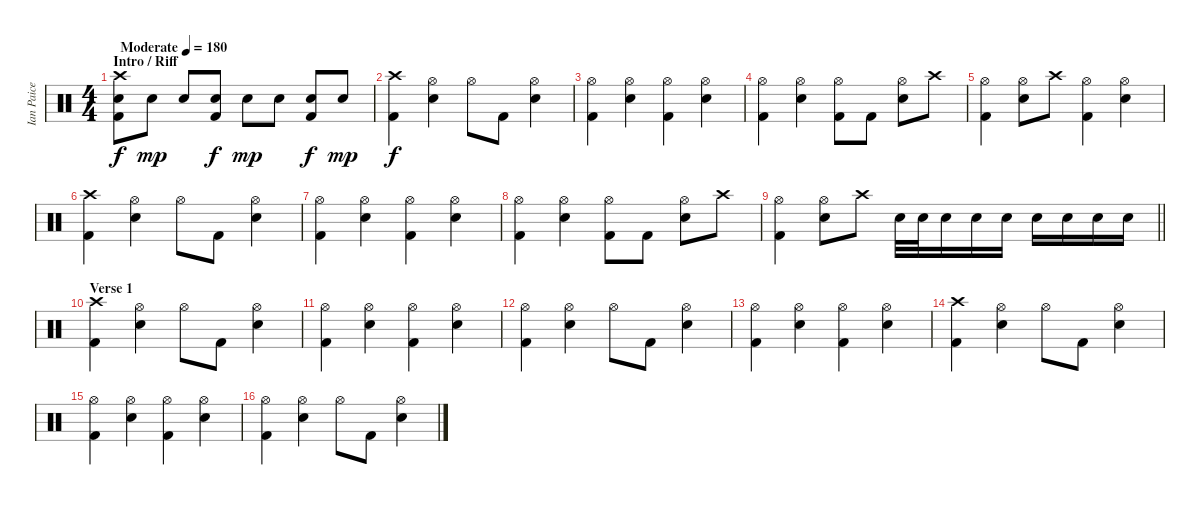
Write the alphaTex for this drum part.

\track ("Ian Paice" "Ian Paice") {instrument percussion}
\staff {score}
\articulation defaults
\ts (4 4)
\section ("" "Intro / Riff")
\tempo (180 "Moderate")
\clef neutral
\ks c
("Crash high (hit)" "Snare (hit) 2" "Kick (hit) 2").8{dy f} "Snare (hit) 2".8{dy mp} "Snare (hit) 2".8 ("Snare (hit) 2" "Kick (hit) 2").8{dy f} "Snare (hit) 2".8{dy mp} "Snare (hit) 2".8 ("Snare (hit) 2" "Kick (hit) 2").8{dy f} "Snare (hit) 2".8{dy mp} |
("Crash high (hit)" "Kick (hit) 2").4{dy f} ("Hi-Hat (open)" "Snare (hit) 2").4 "Hi-Hat (open)".8 "Kick (hit) 2".8 ("Hi-Hat (open)" "Snare (hit) 2").4 |
("Hi-Hat (open)" "Kick (hit) 2").4 ("Hi-Hat (open)" "Snare (hit) 2").4 ("Hi-Hat (open)" "Kick (hit) 2").4 ("Hi-Hat (open)" "Snare (hit) 2").4 |
("Hi-Hat (open)" "Kick (hit) 2").4 ("Hi-Hat (open)" "Snare (hit) 2").4 ("Hi-Hat (open)" "Kick (hit) 2").8 "Kick (hit) 2".8 ("Hi-Hat (open)" "Snare (hit) 2").8 "Crash high (hit)".8 |
("Hi-Hat (open)" "Kick (hit) 2").4 ("Hi-Hat (open)" "Snare (hit) 2").8 "Crash high (hit)".8 ("Hi-Hat (open)" "Kick (hit) 2").4 ("Hi-Hat (open)" "Snare (hit) 2").4 |
("Crash high (hit)" "Kick (hit) 2").4 ("Hi-Hat (open)" "Snare (hit) 2").4 "Hi-Hat (open)".8 "Kick (hit) 2".8 ("Hi-Hat (open)" "Snare (hit) 2").4 |
("Hi-Hat (open)" "Kick (hit) 2").4 ("Hi-Hat (open)" "Snare (hit) 2").4 ("Hi-Hat (open)" "Kick (hit) 2").4 ("Hi-Hat (open)" "Snare (hit) 2").4 |
("Hi-Hat (open)" "Kick (hit) 2").4 ("Hi-Hat (open)" "Snare (hit) 2").4 ("Hi-Hat (open)" "Kick (hit) 2").8 "Kick (hit) 2".8 ("Hi-Hat (open)" "Snare (hit) 2").8 "Crash high (hit)".8 |
\barLineRight lightlight
("Hi-Hat (open)" "Kick (hit) 2").4 ("Hi-Hat (open)" "Snare (hit) 2").8 "Crash high (hit)".8 "Snare (hit) 2".32 "Snare (hit) 2".32 "Snare (hit) 2".16 "Snare (hit) 2".16 "Snare (hit) 2".16 "Snare (hit) 2".16 "Snare (hit) 2".16 "Snare (hit) 2".16 "Snare (hit) 2".16 |
\section ("" "Verse 1 ")
("Crash high (hit)" "Kick (hit) 2").4 ("Hi-Hat (open)" "Snare (hit) 2").4 "Hi-Hat (open)".8 "Kick (hit) 2".8 ("Hi-Hat (open)" "Snare (hit) 2").4 |
("Hi-Hat (open)" "Kick (hit) 2").4 ("Hi-Hat (open)" "Snare (hit) 2").4 ("Hi-Hat (open)" "Kick (hit) 2").4 ("Hi-Hat (open)" "Snare (hit) 2").4 |
\ks aminor
("Hi-Hat (open)" "Kick (hit) 2").4 ("Hi-Hat (open)" "Snare (hit) 2").4 "Hi-Hat (open)".8 "Kick (hit) 2".8 ("Hi-Hat (open)" "Snare (hit) 2").4 |
("Hi-Hat (open)" "Kick (hit) 2").4 ("Hi-Hat (open)" "Snare (hit) 2").4 ("Hi-Hat (open)" "Kick (hit) 2").4 ("Hi-Hat (open)" "Snare (hit) 2").4 |
\ks c
("Crash high (hit)" "Kick (hit) 2").4 ("Hi-Hat (open)" "Snare (hit) 2").4 "Hi-Hat (open)".8 "Kick (hit) 2".8 ("Hi-Hat (open)" "Snare (hit) 2").4 |
("Hi-Hat (open)" "Kick (hit) 2").4 ("Hi-Hat (open)" "Snare (hit) 2").4 ("Hi-Hat (open)" "Kick (hit) 2").4 ("Hi-Hat (open)" "Snare (hit) 2").4 |
\ks aminor
("Hi-Hat (open)" "Kick (hit) 2").4 ("Hi-Hat (open)" "Snare (hit) 2").4 "Hi-Hat (open)".8 "Kick (hit) 2".8 ("Hi-Hat (open)" "Snare (hit) 2").4
